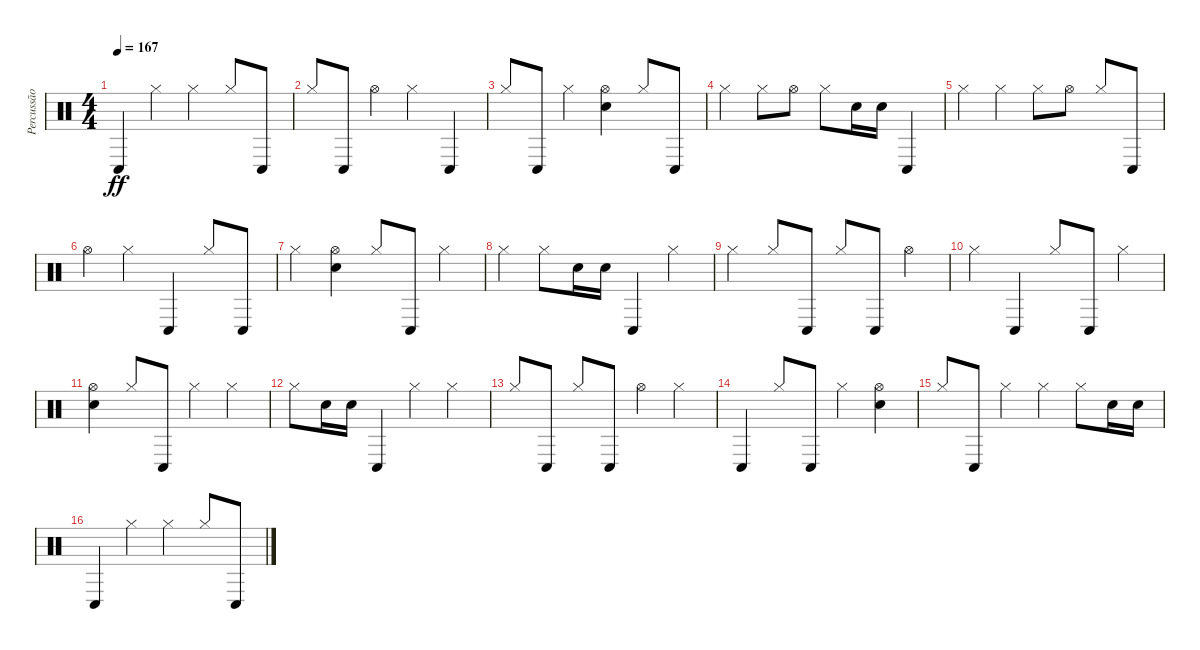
\track ("Percussão" "Percussão") {instrument percussion}
\staff {score}
\articulation defaults
\ts (4 4)
\tempo 167
\clef neutral
\ks c "Conga low (hit)".4{dy ff} "Hi-Hat (closed)".4 "Hi-Hat (closed)".4 "Hi-Hat (closed)".8 "Conga low (hit)".8
|
"Hi-Hat (closed)".8 "Conga low (hit)".8 "Hi-Hat (open)".4 "Hi-Hat (closed)".4 "Conga low (hit)".4 |
"Hi-Hat (closed)".8 "Conga low (hit)".8 "Hi-Hat (closed)".4 ("Electric Snare (hit)" "Hi-Hat (open)").4 "Hi-Hat (closed)".8 "Conga low (hit)".8 |
"Hi-Hat (closed)".4 "Hi-Hat (closed)".8 "Hi-Hat (open)".8 "Hi-Hat (closed)".8 "Electric Snare (hit)".16 "Electric Snare (hit)".16 "Conga low (hit)".4 |
"Hi-Hat (closed)".4 "Hi-Hat (closed)".4 "Hi-Hat (closed)".8 "Hi-Hat (open)".8 "Hi-Hat (closed)".8 "Conga low (hit)".8 |
"Hi-Hat (open)".4 "Hi-Hat (closed)".4 "Conga low (hit)".4 "Hi-Hat (closed)".8 "Conga low (hit)".8 |
"Hi-Hat (closed)".4 ("Electric Snare (hit)" "Hi-Hat (open)").4 "Hi-Hat (closed)".8 "Conga low (hit)".8 "Hi-Hat (closed)".4 |
"Hi-Hat (closed)".4 "Hi-Hat (closed)".8 "Electric Snare (hit)".16 "Electric Snare (hit)".16 "Conga low (hit)".4 "Hi-Hat (closed)".4 |
"Hi-Hat (closed)".4 "Hi-Hat (closed)".8 "Conga low (hit)".8 "Hi-Hat (closed)".8 "Conga low (hit)".8 "Hi-Hat (open)".4 |
"Hi-Hat (closed)".4 "Conga low (hit)".4 "Hi-Hat (closed)".8 "Conga low (hit)".8 "Hi-Hat (closed)".4 |
("Electric Snare (hit)" "Hi-Hat (open)").4 "Hi-Hat (closed)".8 "Conga low (hit)".8 "Hi-Hat (closed)".4 "Hi-Hat (closed)".4 |
"Hi-Hat (closed)".8 "Electric Snare (hit)".16 "Electric Snare (hit)".16 "Conga low (hit)".4 "Hi-Hat (closed)".4 "Hi-Hat (closed)".4 |
"Hi-Hat (closed)".8 "Conga low (hit)".8 "Hi-Hat (closed)".8 "Conga low (hit)".8 "Hi-Hat (open)".4 "Hi-Hat (closed)".4 |
"Conga low (hit)".4 "Hi-Hat (closed)".8 "Conga low (hit)".8 "Hi-Hat (closed)".4 ("Electric Snare (hit)" "Hi-Hat (open)").4 |
"Hi-Hat (closed)".8 "Conga low (hit)".8 "Hi-Hat (closed)".4 "Hi-Hat (closed)".4 "Hi-Hat (closed)".8 "Electric Snare (hit)".16 "Electric Snare (hit)".16 |
"Conga low (hit)".4 "Hi-Hat (closed)".4 "Hi-Hat (closed)".4 "Hi-Hat (closed)".8 "Conga low (hit)".8
